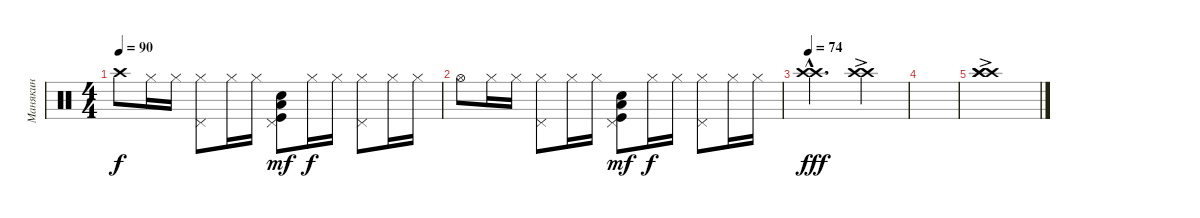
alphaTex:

\track ("Манякин" "Манякин") {instrument percussion}
\staff {score}
\articulation defaults
\ts (4 4)
\tempo 90
\clef neutral
\ks c "Crash high (hit)".8{dy f} "Hi-Hat (closed)".16 "Hi-Hat (closed)".16
("Hi-Hat (closed)" "Pedal Hi-Hat (hit)").8 "Hi-Hat (closed)".16 "Hi-Hat (closed)".16 ("Low Tom (hit)" "Electric Snare (hit)" "Kick (hit)" "Pedal Hi-Hat (hit)").8{dy mf} "Hi-Hat (closed)".16{dy f} "Hi-Hat (closed)".16 ("Pedal Hi-Hat (hit)" "Hi-Hat (closed)").8 "Hi-Hat (closed)".16 "Hi-Hat (closed)".16 |
"Hi-Hat (open)".8 "Hi-Hat (closed)".16 "Hi-Hat (closed)".16 ("Hi-Hat (closed)" "Pedal Hi-Hat (hit)").8 "Hi-Hat (closed)".16 "Hi-Hat (closed)".16 ("Low Tom (hit)" "Electric Snare (hit)" "Kick (hit)" "Pedal Hi-Hat (hit)").8{dy mf} "Hi-Hat (closed)".16{dy f} "Hi-Hat (closed)".16 ("Pedal Hi-Hat (hit)" "Hi-Hat (closed)").8 "Hi-Hat (closed)".16 "Hi-Hat (closed)".16 |
\tempo 74
("Crash high (hit)"{hac} "Crash high (hit)"{hac}).2{d dy fff volume 14} ("Crash high (hit)"{ac} "Crash high (hit)"{ac}).4 |
|
("Crash high (hit)"{ac} "Crash high (hit)" "Crash high (hit)"{ac}).1
